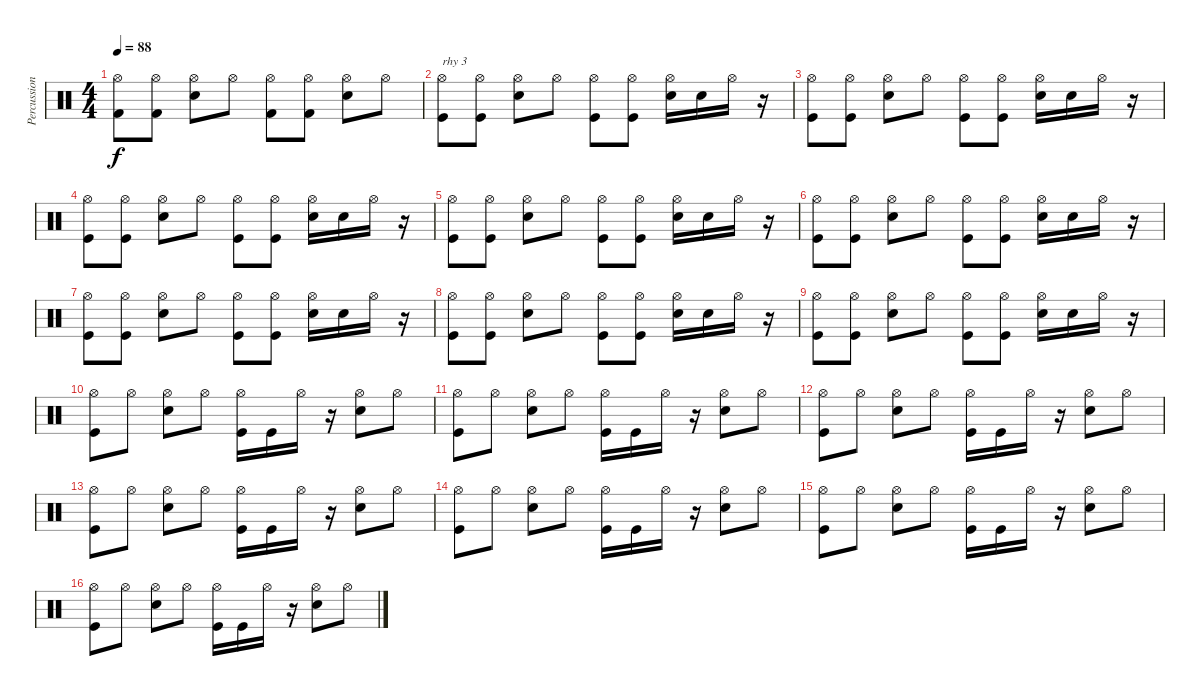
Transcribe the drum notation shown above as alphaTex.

\track ("Percussion" "Percussion") {instrument percussion}
\staff {score}
\articulation defaults
\ts (4 4)
\tempo 88
\clef neutral
\ks c
("Hi-Hat (open)" "Kick (hit) 2").8{dy f} ("Hi-Hat (open)" "Kick (hit) 2").8 ("Hi-Hat (open)" "Snare (hit) 2").8 "Hi-Hat (open)".8 ("Hi-Hat (open)" "Kick (hit) 2").8 ("Hi-Hat (open)" "Kick (hit) 2").8 ("Hi-Hat (open)" "Snare (hit) 2").8 "Hi-Hat (open)".8 |
("Hi-Hat (open)" "Kick (hit)").8{txt "rhy 3"} ("Hi-Hat (open)" "Kick (hit)").8 ("Hi-Hat (open)" "Snare (hit) 2").8 "Hi-Hat (open)".8 ("Hi-Hat (open)" "Kick (hit)").8 ("Hi-Hat (open)" "Kick (hit)").8 ("Hi-Hat (open)" "Snare (hit) 2").16 "Snare (hit) 2".16 "Hi-Hat (open)".16 r.16 |
("Hi-Hat (open)" "Kick (hit)").8 ("Hi-Hat (open)" "Kick (hit)").8 ("Hi-Hat (open)" "Snare (hit) 2").8 "Hi-Hat (open)".8 ("Hi-Hat (open)" "Kick (hit)").8 ("Hi-Hat (open)" "Kick (hit)").8 ("Hi-Hat (open)" "Snare (hit) 2").16 "Snare (hit) 2".16 "Hi-Hat (open)".16 r.16 |
("Hi-Hat (open)" "Kick (hit)").8 ("Hi-Hat (open)" "Kick (hit)").8 ("Hi-Hat (open)" "Snare (hit) 2").8 "Hi-Hat (open)".8 ("Hi-Hat (open)" "Kick (hit)").8 ("Hi-Hat (open)" "Kick (hit)").8 ("Hi-Hat (open)" "Snare (hit) 2").16 "Snare (hit) 2".16 "Hi-Hat (open)".16 r.16 |
("Hi-Hat (open)" "Kick (hit)").8 ("Hi-Hat (open)" "Kick (hit)").8 ("Hi-Hat (open)" "Snare (hit) 2").8 "Hi-Hat (open)".8 ("Hi-Hat (open)" "Kick (hit)").8 ("Hi-Hat (open)" "Kick (hit)").8 ("Hi-Hat (open)" "Snare (hit) 2").16 "Snare (hit) 2".16 "Hi-Hat (open)".16 r.16 |
("Hi-Hat (open)" "Kick (hit)").8 ("Hi-Hat (open)" "Kick (hit)").8 ("Hi-Hat (open)" "Snare (hit) 2").8 "Hi-Hat (open)".8 ("Hi-Hat (open)" "Kick (hit)").8 ("Hi-Hat (open)" "Kick (hit)").8 ("Hi-Hat (open)" "Snare (hit) 2").16 "Snare (hit) 2".16 "Hi-Hat (open)".16 r.16 |
("Hi-Hat (open)" "Kick (hit)").8 ("Hi-Hat (open)" "Kick (hit)").8 ("Hi-Hat (open)" "Snare (hit) 2").8 "Hi-Hat (open)".8 ("Hi-Hat (open)" "Kick (hit)").8 ("Hi-Hat (open)" "Kick (hit)").8 ("Hi-Hat (open)" "Snare (hit) 2").16 "Snare (hit) 2".16 "Hi-Hat (open)".16 r.16 |
("Hi-Hat (open)" "Kick (hit)").8 ("Hi-Hat (open)" "Kick (hit)").8 ("Hi-Hat (open)" "Snare (hit) 2").8 "Hi-Hat (open)".8 ("Hi-Hat (open)" "Kick (hit)").8 ("Hi-Hat (open)" "Kick (hit)").8 ("Hi-Hat (open)" "Snare (hit) 2").16 "Snare (hit) 2".16 "Hi-Hat (open)".16 r.16 |
("Hi-Hat (open)" "Kick (hit)").8 ("Hi-Hat (open)" "Kick (hit)").8 ("Hi-Hat (open)" "Snare (hit) 2").8 "Hi-Hat (open)".8 ("Hi-Hat (open)" "Kick (hit)").8 ("Hi-Hat (open)" "Kick (hit)").8 ("Hi-Hat (open)" "Snare (hit) 2").16 "Snare (hit) 2".16 "Hi-Hat (open)".16 r.16 |
("Hi-Hat (open)" "Kick (hit)").8 "Hi-Hat (open)".8 ("Hi-Hat (open)" "Snare (hit) 2").8 "Hi-Hat (open)".8 ("Hi-Hat (open)" "Kick (hit)").16 "Kick (hit)".16 "Hi-Hat (open)".16 r.16 ("Hi-Hat (open)" "Snare (hit) 2").8 "Hi-Hat (open)".8 |
("Hi-Hat (open)" "Kick (hit)").8 "Hi-Hat (open)".8 ("Hi-Hat (open)" "Snare (hit) 2").8 "Hi-Hat (open)".8 ("Hi-Hat (open)" "Kick (hit)").16 "Kick (hit)".16 "Hi-Hat (open)".16 r.16 ("Hi-Hat (open)" "Snare (hit) 2").8 "Hi-Hat (open)".8 |
("Hi-Hat (open)" "Kick (hit)").8 "Hi-Hat (open)".8 ("Hi-Hat (open)" "Snare (hit) 2").8 "Hi-Hat (open)".8 ("Hi-Hat (open)" "Kick (hit)").16 "Kick (hit)".16 "Hi-Hat (open)".16 r.16 ("Hi-Hat (open)" "Snare (hit) 2").8 "Hi-Hat (open)".8 |
("Hi-Hat (open)" "Kick (hit)").8 "Hi-Hat (open)".8 ("Hi-Hat (open)" "Snare (hit) 2").8 "Hi-Hat (open)".8 ("Hi-Hat (open)" "Kick (hit)").16 "Kick (hit)".16 "Hi-Hat (open)".16 r.16 ("Hi-Hat (open)" "Snare (hit) 2").8 "Hi-Hat (open)".8 |
("Hi-Hat (open)" "Kick (hit)").8 "Hi-Hat (open)".8 ("Hi-Hat (open)" "Snare (hit) 2").8 "Hi-Hat (open)".8 ("Hi-Hat (open)" "Kick (hit)").16 "Kick (hit)".16 "Hi-Hat (open)".16 r.16 ("Hi-Hat (open)" "Snare (hit) 2").8 "Hi-Hat (open)".8 |
("Hi-Hat (open)" "Kick (hit)").8 "Hi-Hat (open)".8 ("Hi-Hat (open)" "Snare (hit) 2").8 "Hi-Hat (open)".8 ("Hi-Hat (open)" "Kick (hit)").16 "Kick (hit)".16 "Hi-Hat (open)".16 r.16 ("Hi-Hat (open)" "Snare (hit) 2").8 "Hi-Hat (open)".8 |
("Hi-Hat (open)" "Kick (hit)").8 "Hi-Hat (open)".8 ("Hi-Hat (open)" "Snare (hit) 2").8 "Hi-Hat (open)".8 ("Hi-Hat (open)" "Kick (hit)").16 "Kick (hit)".16 "Hi-Hat (open)".16 r.16 ("Hi-Hat (open)" "Snare (hit) 2").8 "Hi-Hat (open)".8
